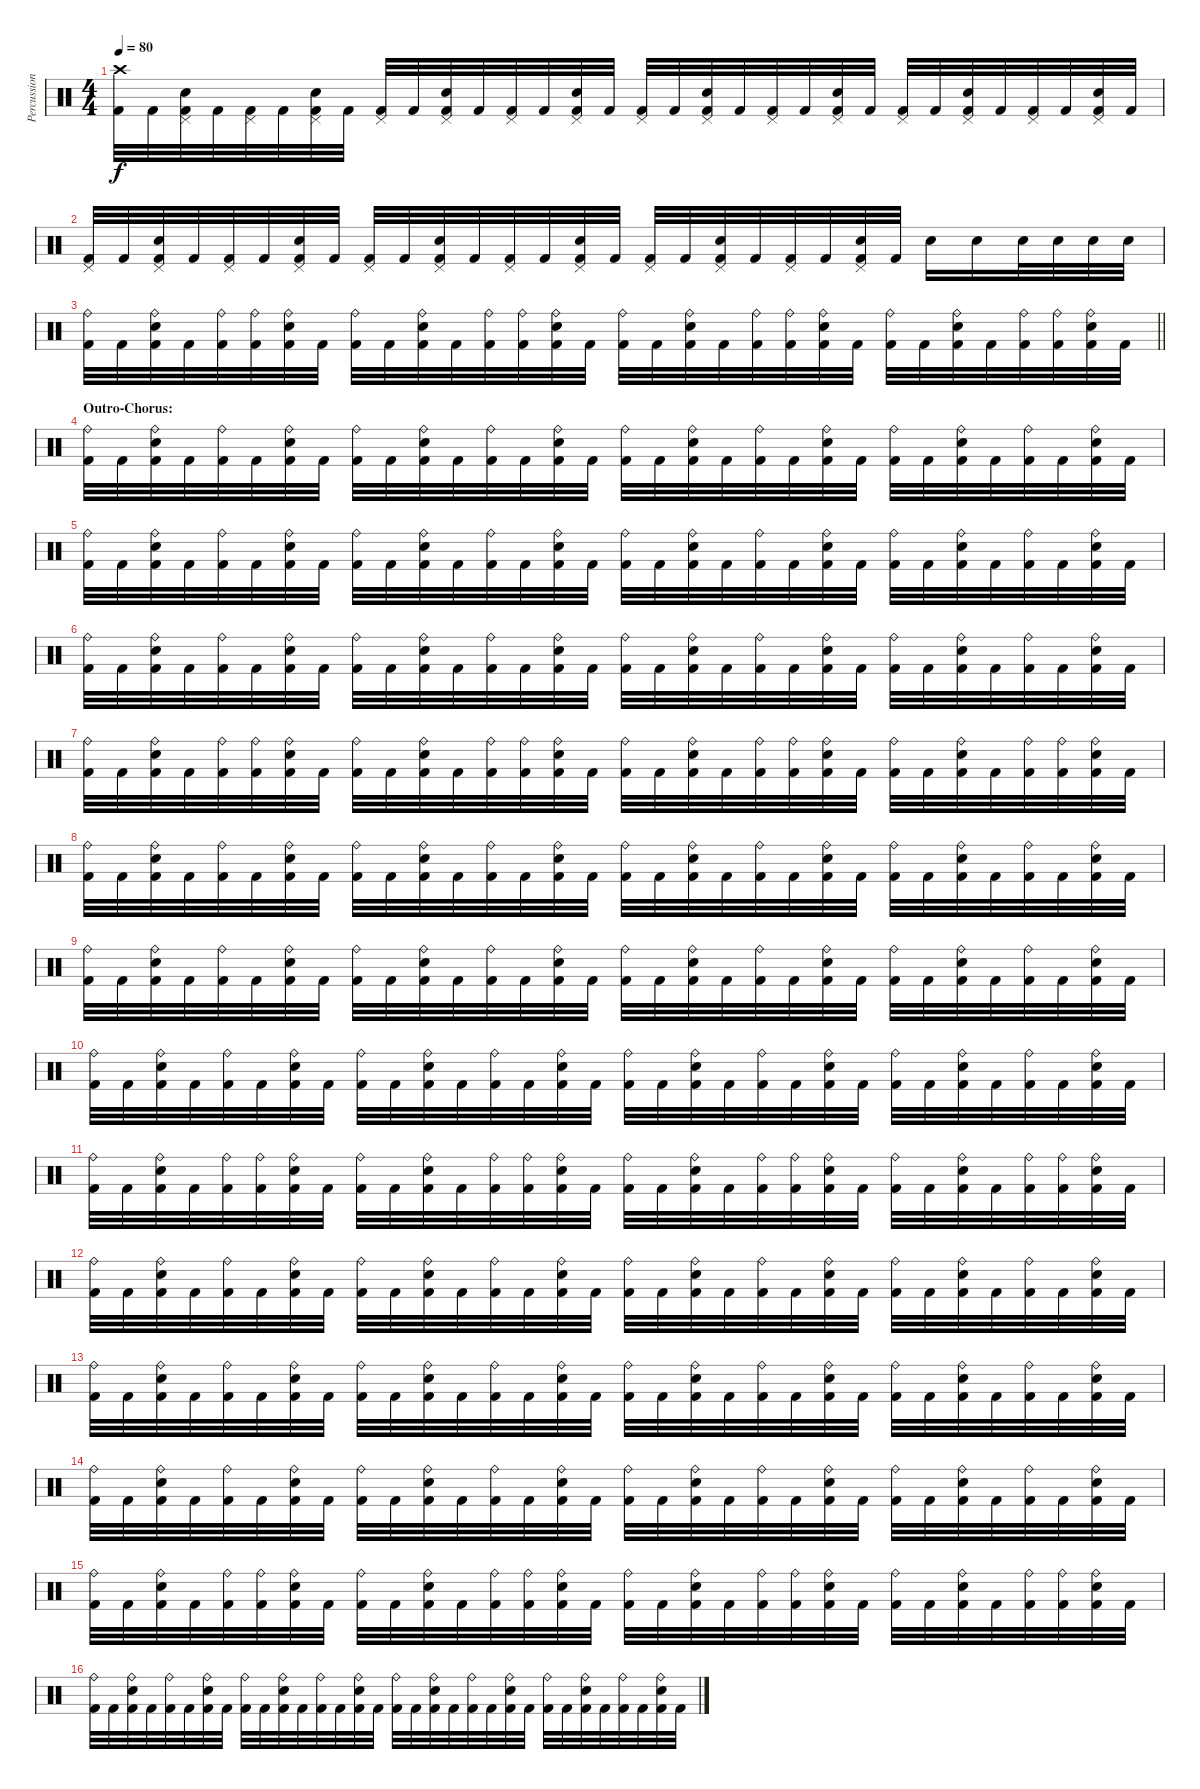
\track ("Percussion" "Percussion") {instrument percussion}
\staff {score}
\articulation defaults
\ts (4 4)
\tempo 80
\clef neutral
\ks c
("Crash high (hit)" "Kick (hit) 2").32{dy f} "Kick (hit) 2".32 ("Pedal Hi-Hat (hit)" "Electric Snare (hit)" "Kick (hit) 2").32 "Kick (hit) 2".32 ("Pedal Hi-Hat (hit)" "Kick (hit) 2").32 "Kick (hit) 2".32 ("Pedal Hi-Hat (hit)" "Electric Snare (hit)" "Kick (hit) 2").32 "Kick (hit) 2".32 ("Pedal Hi-Hat (hit)" "Kick (hit) 2").32 "Kick (hit) 2".32 ("Pedal Hi-Hat (hit)" "Electric Snare (hit)" "Kick (hit) 2").32 "Kick (hit) 2".32 ("Pedal Hi-Hat (hit)" "Kick (hit) 2").32 "Kick (hit) 2".32 ("Pedal Hi-Hat (hit)" "Electric Snare (hit)" "Kick (hit) 2").32 "Kick (hit) 2".32 ("Pedal Hi-Hat (hit)" "Kick (hit) 2").32 "Kick (hit) 2".32 ("Pedal Hi-Hat (hit)" "Electric Snare (hit)" "Kick (hit) 2").32 "Kick (hit) 2".32 ("Pedal Hi-Hat (hit)" "Kick (hit) 2").32 "Kick (hit) 2".32 ("Pedal Hi-Hat (hit)" "Electric Snare (hit)" "Kick (hit) 2").32 "Kick (hit) 2".32 ("Pedal Hi-Hat (hit)" "Kick (hit) 2").32 "Kick (hit) 2".32 ("Pedal Hi-Hat (hit)" "Electric Snare (hit)" "Kick (hit) 2").32 "Kick (hit) 2".32 ("Pedal Hi-Hat (hit)" "Kick (hit) 2").32 "Kick (hit) 2".32 ("Pedal Hi-Hat (hit)" "Electric Snare (hit)" "Kick (hit) 2").32 "Kick (hit) 2".32 |
("Pedal Hi-Hat (hit)" "Kick (hit) 2").32 "Kick (hit) 2".32 ("Pedal Hi-Hat (hit)" "Electric Snare (hit)" "Kick (hit) 2").32 "Kick (hit) 2".32 ("Pedal Hi-Hat (hit)" "Kick (hit) 2").32 "Kick (hit) 2".32 ("Pedal Hi-Hat (hit)" "Electric Snare (hit)" "Kick (hit) 2").32 "Kick (hit) 2".32 ("Pedal Hi-Hat (hit)" "Kick (hit) 2").32 "Kick (hit) 2".32 ("Pedal Hi-Hat (hit)" "Electric Snare (hit)" "Kick (hit) 2").32 "Kick (hit) 2".32 ("Pedal Hi-Hat (hit)" "Kick (hit) 2").32 "Kick (hit) 2".32 ("Pedal Hi-Hat (hit)" "Electric Snare (hit)" "Kick (hit) 2").32 "Kick (hit) 2".32 ("Pedal Hi-Hat (hit)" "Kick (hit) 2").32 "Kick (hit) 2".32 ("Pedal Hi-Hat (hit)" "Electric Snare (hit)" "Kick (hit) 2").32 "Kick (hit) 2".32 ("Pedal Hi-Hat (hit)" "Kick (hit) 2").32 "Kick (hit) 2".32 ("Pedal Hi-Hat (hit)" "Electric Snare (hit)" "Kick (hit) 2").32 "Kick (hit) 2".32 "Electric Snare (hit)".16 "Electric Snare (hit)".16 "Electric Snare (hit)".32 "Electric Snare (hit)".32 "Electric Snare (hit)".32 "Electric Snare (hit)".32 |
\barLineRight lightlight
("Ride (bell)" "Kick (hit) 2").32 "Kick (hit) 2".32 ("Ride (bell)" "Electric Snare (hit)" "Kick (hit) 2").32 "Kick (hit) 2".32 ("Ride (bell)" "Kick (hit) 2").32 ("Ride (bell)" "Kick (hit) 2").32 ("Ride (bell)" "Electric Snare (hit)" "Kick (hit) 2").32 "Kick (hit) 2".32 ("Ride (bell)" "Kick (hit) 2").32 "Kick (hit) 2".32 ("Ride (bell)" "Electric Snare (hit)" "Kick (hit) 2").32 "Kick (hit) 2".32 ("Ride (bell)" "Kick (hit) 2").32 ("Ride (bell)" "Kick (hit) 2").32 ("Ride (bell)" "Electric Snare (hit)" "Kick (hit) 2").32 "Kick (hit) 2".32 ("Ride (bell)" "Kick (hit) 2").32 "Kick (hit) 2".32 ("Ride (bell)" "Electric Snare (hit)" "Kick (hit) 2").32 "Kick (hit) 2".32 ("Ride (bell)" "Kick (hit) 2").32 ("Ride (bell)" "Kick (hit) 2").32 ("Ride (bell)" "Electric Snare (hit)" "Kick (hit) 2").32 "Kick (hit) 2".32 ("Ride (bell)" "Kick (hit) 2").32 "Kick (hit) 2".32 ("Ride (bell)" "Electric Snare (hit)" "Kick (hit) 2").32 "Kick (hit) 2".32 ("Ride (bell)" "Kick (hit) 2").32 ("Ride (bell)" "Kick (hit) 2").32 ("Ride (bell)" "Electric Snare (hit)" "Kick (hit) 2").32 "Kick (hit) 2".32 |
\section ("" "Outro-Chorus:")
("Ride (bell)" "Kick (hit) 2").32 "Kick (hit) 2".32 ("Ride (bell)" "Electric Snare (hit)" "Kick (hit) 2").32 "Kick (hit) 2".32 ("Ride (bell)" "Kick (hit) 2").32 "Kick (hit) 2".32 ("Ride (bell)" "Electric Snare (hit)" "Kick (hit) 2").32 "Kick (hit) 2".32 ("Ride (bell)" "Kick (hit) 2").32 "Kick (hit) 2".32 ("Ride (bell)" "Electric Snare (hit)" "Kick (hit) 2").32 "Kick (hit) 2".32 ("Ride (bell)" "Kick (hit) 2").32 "Kick (hit) 2".32 ("Ride (bell)" "Electric Snare (hit)" "Kick (hit) 2").32 "Kick (hit) 2".32 ("Ride (bell)" "Kick (hit) 2").32 "Kick (hit) 2".32 ("Ride (bell)" "Electric Snare (hit)" "Kick (hit) 2").32 "Kick (hit) 2".32 ("Ride (bell)" "Kick (hit) 2").32 "Kick (hit) 2".32 ("Ride (bell)" "Electric Snare (hit)" "Kick (hit) 2").32 "Kick (hit) 2".32 ("Ride (bell)" "Kick (hit) 2").32 "Kick (hit) 2".32 ("Ride (bell)" "Electric Snare (hit)" "Kick (hit) 2").32 "Kick (hit) 2".32 ("Ride (bell)" "Kick (hit) 2").32 "Kick (hit) 2".32 ("Ride (bell)" "Electric Snare (hit)" "Kick (hit) 2").32 "Kick (hit) 2".32 |
("Ride (bell)" "Kick (hit) 2").32 "Kick (hit) 2".32 ("Ride (bell)" "Electric Snare (hit)" "Kick (hit) 2").32 "Kick (hit) 2".32 ("Ride (bell)" "Kick (hit) 2").32 "Kick (hit) 2".32 ("Ride (bell)" "Electric Snare (hit)" "Kick (hit) 2").32 "Kick (hit) 2".32 ("Ride (bell)" "Kick (hit) 2").32 "Kick (hit) 2".32 ("Ride (bell)" "Electric Snare (hit)" "Kick (hit) 2").32 "Kick (hit) 2".32 ("Ride (bell)" "Kick (hit) 2").32 "Kick (hit) 2".32 ("Ride (bell)" "Electric Snare (hit)" "Kick (hit) 2").32 "Kick (hit) 2".32 ("Ride (bell)" "Kick (hit) 2").32 "Kick (hit) 2".32 ("Ride (bell)" "Electric Snare (hit)" "Kick (hit) 2").32 "Kick (hit) 2".32 ("Ride (bell)" "Kick (hit) 2").32 "Kick (hit) 2".32 ("Ride (bell)" "Electric Snare (hit)" "Kick (hit) 2").32 "Kick (hit) 2".32 ("Ride (bell)" "Kick (hit) 2").32 "Kick (hit) 2".32 ("Ride (bell)" "Electric Snare (hit)" "Kick (hit) 2").32 "Kick (hit) 2".32 ("Ride (bell)" "Kick (hit) 2").32 "Kick (hit) 2".32 ("Ride (bell)" "Electric Snare (hit)" "Kick (hit) 2").32 "Kick (hit) 2".32 |
("Ride (bell)" "Kick (hit) 2").32 "Kick (hit) 2".32 ("Ride (bell)" "Electric Snare (hit)" "Kick (hit) 2").32 "Kick (hit) 2".32 ("Ride (bell)" "Kick (hit) 2").32 "Kick (hit) 2".32 ("Ride (bell)" "Electric Snare (hit)" "Kick (hit) 2").32 "Kick (hit) 2".32 ("Ride (bell)" "Kick (hit) 2").32 "Kick (hit) 2".32 ("Ride (bell)" "Electric Snare (hit)" "Kick (hit) 2").32 "Kick (hit) 2".32 ("Ride (bell)" "Kick (hit) 2").32 "Kick (hit) 2".32 ("Ride (bell)" "Electric Snare (hit)" "Kick (hit) 2").32 "Kick (hit) 2".32 ("Ride (bell)" "Kick (hit) 2").32 "Kick (hit) 2".32 ("Ride (bell)" "Electric Snare (hit)" "Kick (hit) 2").32 "Kick (hit) 2".32 ("Ride (bell)" "Kick (hit) 2").32 "Kick (hit) 2".32 ("Ride (bell)" "Electric Snare (hit)" "Kick (hit) 2").32 "Kick (hit) 2".32 ("Ride (bell)" "Kick (hit) 2").32 "Kick (hit) 2".32 ("Ride (bell)" "Electric Snare (hit)" "Kick (hit) 2").32 "Kick (hit) 2".32 ("Ride (bell)" "Kick (hit) 2").32 "Kick (hit) 2".32 ("Ride (bell)" "Electric Snare (hit)" "Kick (hit) 2").32 "Kick (hit) 2".32 |
("Ride (bell)" "Kick (hit) 2").32 "Kick (hit) 2".32 ("Ride (bell)" "Electric Snare (hit)" "Kick (hit) 2").32 "Kick (hit) 2".32 ("Ride (bell)" "Kick (hit) 2").32 ("Ride (bell)" "Kick (hit) 2").32 ("Ride (bell)" "Electric Snare (hit)" "Kick (hit) 2").32 "Kick (hit) 2".32 ("Ride (bell)" "Kick (hit) 2").32 "Kick (hit) 2".32 ("Ride (bell)" "Electric Snare (hit)" "Kick (hit) 2").32 "Kick (hit) 2".32 ("Ride (bell)" "Kick (hit) 2").32 ("Ride (bell)" "Kick (hit) 2").32 ("Ride (bell)" "Electric Snare (hit)" "Kick (hit) 2").32 "Kick (hit) 2".32 ("Ride (bell)" "Kick (hit) 2").32 "Kick (hit) 2".32 ("Ride (bell)" "Electric Snare (hit)" "Kick (hit) 2").32 "Kick (hit) 2".32 ("Ride (bell)" "Kick (hit) 2").32 ("Ride (bell)" "Kick (hit) 2").32 ("Ride (bell)" "Electric Snare (hit)" "Kick (hit) 2").32 "Kick (hit) 2".32 ("Ride (bell)" "Kick (hit) 2").32 "Kick (hit) 2".32 ("Ride (bell)" "Electric Snare (hit)" "Kick (hit) 2").32 "Kick (hit) 2".32 ("Ride (bell)" "Kick (hit) 2").32 ("Ride (bell)" "Kick (hit) 2").32 ("Ride (bell)" "Electric Snare (hit)" "Kick (hit) 2").32 "Kick (hit) 2".32 |
("Ride (bell)" "Kick (hit) 2").32 "Kick (hit) 2".32 ("Ride (bell)" "Electric Snare (hit)" "Kick (hit) 2").32 "Kick (hit) 2".32 ("Ride (bell)" "Kick (hit) 2").32 "Kick (hit) 2".32 ("Ride (bell)" "Electric Snare (hit)" "Kick (hit) 2").32 "Kick (hit) 2".32 ("Ride (bell)" "Kick (hit) 2").32 "Kick (hit) 2".32 ("Ride (bell)" "Electric Snare (hit)" "Kick (hit) 2").32 "Kick (hit) 2".32 ("Ride (bell)" "Kick (hit) 2").32 "Kick (hit) 2".32 ("Ride (bell)" "Electric Snare (hit)" "Kick (hit) 2").32 "Kick (hit) 2".32 ("Ride (bell)" "Kick (hit) 2").32 "Kick (hit) 2".32 ("Ride (bell)" "Electric Snare (hit)" "Kick (hit) 2").32 "Kick (hit) 2".32 ("Ride (bell)" "Kick (hit) 2").32 "Kick (hit) 2".32 ("Ride (bell)" "Electric Snare (hit)" "Kick (hit) 2").32 "Kick (hit) 2".32 ("Ride (bell)" "Kick (hit) 2").32 "Kick (hit) 2".32 ("Ride (bell)" "Electric Snare (hit)" "Kick (hit) 2").32 "Kick (hit) 2".32 ("Ride (bell)" "Kick (hit) 2").32 "Kick (hit) 2".32 ("Ride (bell)" "Electric Snare (hit)" "Kick (hit) 2").32 "Kick (hit) 2".32 |
("Ride (bell)" "Kick (hit) 2").32 "Kick (hit) 2".32 ("Ride (bell)" "Electric Snare (hit)" "Kick (hit) 2").32 "Kick (hit) 2".32 ("Ride (bell)" "Kick (hit) 2").32 "Kick (hit) 2".32 ("Ride (bell)" "Electric Snare (hit)" "Kick (hit) 2").32 "Kick (hit) 2".32 ("Ride (bell)" "Kick (hit) 2").32 "Kick (hit) 2".32 ("Ride (bell)" "Electric Snare (hit)" "Kick (hit) 2").32 "Kick (hit) 2".32 ("Ride (bell)" "Kick (hit) 2").32 "Kick (hit) 2".32 ("Ride (bell)" "Electric Snare (hit)" "Kick (hit) 2").32 "Kick (hit) 2".32 ("Ride (bell)" "Kick (hit) 2").32 "Kick (hit) 2".32 ("Ride (bell)" "Electric Snare (hit)" "Kick (hit) 2").32 "Kick (hit) 2".32 ("Ride (bell)" "Kick (hit) 2").32 "Kick (hit) 2".32 ("Ride (bell)" "Electric Snare (hit)" "Kick (hit) 2").32 "Kick (hit) 2".32 ("Ride (bell)" "Kick (hit) 2").32 "Kick (hit) 2".32 ("Ride (bell)" "Electric Snare (hit)" "Kick (hit) 2").32 "Kick (hit) 2".32 ("Ride (bell)" "Kick (hit) 2").32 "Kick (hit) 2".32 ("Ride (bell)" "Electric Snare (hit)" "Kick (hit) 2").32 "Kick (hit) 2".32 |
("Ride (bell)" "Kick (hit) 2").32 "Kick (hit) 2".32 ("Ride (bell)" "Electric Snare (hit)" "Kick (hit) 2").32 "Kick (hit) 2".32 ("Ride (bell)" "Kick (hit) 2").32 "Kick (hit) 2".32 ("Ride (bell)" "Electric Snare (hit)" "Kick (hit) 2").32 "Kick (hit) 2".32 ("Ride (bell)" "Kick (hit) 2").32 "Kick (hit) 2".32 ("Ride (bell)" "Electric Snare (hit)" "Kick (hit) 2").32 "Kick (hit) 2".32 ("Ride (bell)" "Kick (hit) 2").32 "Kick (hit) 2".32 ("Ride (bell)" "Electric Snare (hit)" "Kick (hit) 2").32 "Kick (hit) 2".32 ("Ride (bell)" "Kick (hit) 2").32 "Kick (hit) 2".32 ("Ride (bell)" "Electric Snare (hit)" "Kick (hit) 2").32 "Kick (hit) 2".32 ("Ride (bell)" "Kick (hit) 2").32 "Kick (hit) 2".32 ("Ride (bell)" "Electric Snare (hit)" "Kick (hit) 2").32 "Kick (hit) 2".32 ("Ride (bell)" "Kick (hit) 2").32 "Kick (hit) 2".32 ("Ride (bell)" "Electric Snare (hit)" "Kick (hit) 2").32 "Kick (hit) 2".32 ("Ride (bell)" "Kick (hit) 2").32 "Kick (hit) 2".32 ("Ride (bell)" "Electric Snare (hit)" "Kick (hit) 2").32 "Kick (hit) 2".32 |
("Ride (bell)" "Kick (hit) 2").32 "Kick (hit) 2".32 ("Ride (bell)" "Electric Snare (hit)" "Kick (hit) 2").32 "Kick (hit) 2".32 ("Ride (bell)" "Kick (hit) 2").32 ("Ride (bell)" "Kick (hit) 2").32 ("Ride (bell)" "Electric Snare (hit)" "Kick (hit) 2").32 "Kick (hit) 2".32 ("Ride (bell)" "Kick (hit) 2").32 "Kick (hit) 2".32 ("Ride (bell)" "Electric Snare (hit)" "Kick (hit) 2").32 "Kick (hit) 2".32 ("Ride (bell)" "Kick (hit) 2").32 ("Ride (bell)" "Kick (hit) 2").32 ("Ride (bell)" "Electric Snare (hit)" "Kick (hit) 2").32 "Kick (hit) 2".32 ("Ride (bell)" "Kick (hit) 2").32 "Kick (hit) 2".32 ("Ride (bell)" "Electric Snare (hit)" "Kick (hit) 2").32 "Kick (hit) 2".32 ("Ride (bell)" "Kick (hit) 2").32 ("Ride (bell)" "Kick (hit) 2").32 ("Ride (bell)" "Electric Snare (hit)" "Kick (hit) 2").32 "Kick (hit) 2".32 ("Ride (bell)" "Kick (hit) 2").32 "Kick (hit) 2".32 ("Ride (bell)" "Electric Snare (hit)" "Kick (hit) 2").32 "Kick (hit) 2".32 ("Ride (bell)" "Kick (hit) 2").32 ("Ride (bell)" "Kick (hit) 2").32 ("Ride (bell)" "Electric Snare (hit)" "Kick (hit) 2").32 "Kick (hit) 2".32 |
("Ride (bell)" "Kick (hit) 2").32 "Kick (hit) 2".32 ("Ride (bell)" "Electric Snare (hit)" "Kick (hit) 2").32 "Kick (hit) 2".32 ("Ride (bell)" "Kick (hit) 2").32 "Kick (hit) 2".32 ("Ride (bell)" "Electric Snare (hit)" "Kick (hit) 2").32 "Kick (hit) 2".32 ("Ride (bell)" "Kick (hit) 2").32 "Kick (hit) 2".32 ("Ride (bell)" "Electric Snare (hit)" "Kick (hit) 2").32 "Kick (hit) 2".32 ("Ride (bell)" "Kick (hit) 2").32 "Kick (hit) 2".32 ("Ride (bell)" "Electric Snare (hit)" "Kick (hit) 2").32 "Kick (hit) 2".32 ("Ride (bell)" "Kick (hit) 2").32 "Kick (hit) 2".32 ("Ride (bell)" "Electric Snare (hit)" "Kick (hit) 2").32 "Kick (hit) 2".32 ("Ride (bell)" "Kick (hit) 2").32 "Kick (hit) 2".32 ("Ride (bell)" "Electric Snare (hit)" "Kick (hit) 2").32 "Kick (hit) 2".32 ("Ride (bell)" "Kick (hit) 2").32 "Kick (hit) 2".32 ("Ride (bell)" "Electric Snare (hit)" "Kick (hit) 2").32 "Kick (hit) 2".32 ("Ride (bell)" "Kick (hit) 2").32 "Kick (hit) 2".32 ("Ride (bell)" "Electric Snare (hit)" "Kick (hit) 2").32 "Kick (hit) 2".32 |
("Ride (bell)" "Kick (hit) 2").32 "Kick (hit) 2".32 ("Ride (bell)" "Electric Snare (hit)" "Kick (hit) 2").32 "Kick (hit) 2".32 ("Ride (bell)" "Kick (hit) 2").32 "Kick (hit) 2".32 ("Ride (bell)" "Electric Snare (hit)" "Kick (hit) 2").32 "Kick (hit) 2".32 ("Ride (bell)" "Kick (hit) 2").32 "Kick (hit) 2".32 ("Ride (bell)" "Electric Snare (hit)" "Kick (hit) 2").32 "Kick (hit) 2".32 ("Ride (bell)" "Kick (hit) 2").32 "Kick (hit) 2".32 ("Ride (bell)" "Electric Snare (hit)" "Kick (hit) 2").32 "Kick (hit) 2".32 ("Ride (bell)" "Kick (hit) 2").32 "Kick (hit) 2".32 ("Ride (bell)" "Electric Snare (hit)" "Kick (hit) 2").32 "Kick (hit) 2".32 ("Ride (bell)" "Kick (hit) 2").32 "Kick (hit) 2".32 ("Ride (bell)" "Electric Snare (hit)" "Kick (hit) 2").32 "Kick (hit) 2".32 ("Ride (bell)" "Kick (hit) 2").32 "Kick (hit) 2".32 ("Ride (bell)" "Electric Snare (hit)" "Kick (hit) 2").32 "Kick (hit) 2".32 ("Ride (bell)" "Kick (hit) 2").32 "Kick (hit) 2".32 ("Ride (bell)" "Electric Snare (hit)" "Kick (hit) 2").32 "Kick (hit) 2".32 |
("Ride (bell)" "Kick (hit) 2").32 "Kick (hit) 2".32 ("Ride (bell)" "Electric Snare (hit)" "Kick (hit) 2").32 "Kick (hit) 2".32 ("Ride (bell)" "Kick (hit) 2").32 "Kick (hit) 2".32 ("Ride (bell)" "Electric Snare (hit)" "Kick (hit) 2").32 "Kick (hit) 2".32 ("Ride (bell)" "Kick (hit) 2").32 "Kick (hit) 2".32 ("Ride (bell)" "Electric Snare (hit)" "Kick (hit) 2").32 "Kick (hit) 2".32 ("Ride (bell)" "Kick (hit) 2").32 "Kick (hit) 2".32 ("Ride (bell)" "Electric Snare (hit)" "Kick (hit) 2").32 "Kick (hit) 2".32 ("Ride (bell)" "Kick (hit) 2").32 "Kick (hit) 2".32 ("Ride (bell)" "Electric Snare (hit)" "Kick (hit) 2").32 "Kick (hit) 2".32 ("Ride (bell)" "Kick (hit) 2").32 "Kick (hit) 2".32 ("Ride (bell)" "Electric Snare (hit)" "Kick (hit) 2").32 "Kick (hit) 2".32 ("Ride (bell)" "Kick (hit) 2").32 "Kick (hit) 2".32 ("Ride (bell)" "Electric Snare (hit)" "Kick (hit) 2").32 "Kick (hit) 2".32 ("Ride (bell)" "Kick (hit) 2").32 "Kick (hit) 2".32 ("Ride (bell)" "Electric Snare (hit)" "Kick (hit) 2").32 "Kick (hit) 2".32 |
("Ride (bell)" "Kick (hit) 2").32 "Kick (hit) 2".32 ("Ride (bell)" "Electric Snare (hit)" "Kick (hit) 2").32 "Kick (hit) 2".32 ("Ride (bell)" "Kick (hit) 2").32 ("Ride (bell)" "Kick (hit) 2").32 ("Ride (bell)" "Electric Snare (hit)" "Kick (hit) 2").32 "Kick (hit) 2".32 ("Ride (bell)" "Kick (hit) 2").32 "Kick (hit) 2".32 ("Ride (bell)" "Electric Snare (hit)" "Kick (hit) 2").32 "Kick (hit) 2".32 ("Ride (bell)" "Kick (hit) 2").32 ("Ride (bell)" "Kick (hit) 2").32 ("Ride (bell)" "Electric Snare (hit)" "Kick (hit) 2").32 "Kick (hit) 2".32 ("Ride (bell)" "Kick (hit) 2").32 "Kick (hit) 2".32 ("Ride (bell)" "Electric Snare (hit)" "Kick (hit) 2").32 "Kick (hit) 2".32 ("Ride (bell)" "Kick (hit) 2").32 ("Ride (bell)" "Kick (hit) 2").32 ("Ride (bell)" "Electric Snare (hit)" "Kick (hit) 2").32 "Kick (hit) 2".32 ("Ride (bell)" "Kick (hit) 2").32 "Kick (hit) 2".32 ("Ride (bell)" "Electric Snare (hit)" "Kick (hit) 2").32 "Kick (hit) 2".32 ("Ride (bell)" "Kick (hit) 2").32 ("Ride (bell)" "Kick (hit) 2").32 ("Ride (bell)" "Electric Snare (hit)" "Kick (hit) 2").32 "Kick (hit) 2".32 |
("Ride (bell)" "Kick (hit) 2").32 "Kick (hit) 2".32 ("Ride (bell)" "Electric Snare (hit)" "Kick (hit) 2").32 "Kick (hit) 2".32 ("Ride (bell)" "Kick (hit) 2").32 "Kick (hit) 2".32 ("Ride (bell)" "Electric Snare (hit)" "Kick (hit) 2").32 "Kick (hit) 2".32 ("Ride (bell)" "Kick (hit) 2").32 "Kick (hit) 2".32 ("Ride (bell)" "Electric Snare (hit)" "Kick (hit) 2").32 "Kick (hit) 2".32 ("Ride (bell)" "Kick (hit) 2").32 "Kick (hit) 2".32 ("Ride (bell)" "Electric Snare (hit)" "Kick (hit) 2").32 "Kick (hit) 2".32 ("Ride (bell)" "Kick (hit) 2").32 "Kick (hit) 2".32 ("Ride (bell)" "Electric Snare (hit)" "Kick (hit) 2").32 "Kick (hit) 2".32 ("Ride (bell)" "Kick (hit) 2").32 "Kick (hit) 2".32 ("Ride (bell)" "Electric Snare (hit)" "Kick (hit) 2").32 "Kick (hit) 2".32 ("Ride (bell)" "Kick (hit) 2").32 "Kick (hit) 2".32 ("Ride (bell)" "Electric Snare (hit)" "Kick (hit) 2").32 "Kick (hit) 2".32 ("Ride (bell)" "Kick (hit) 2").32 "Kick (hit) 2".32 ("Ride (bell)" "Electric Snare (hit)" "Kick (hit) 2").32 "Kick (hit) 2".32
